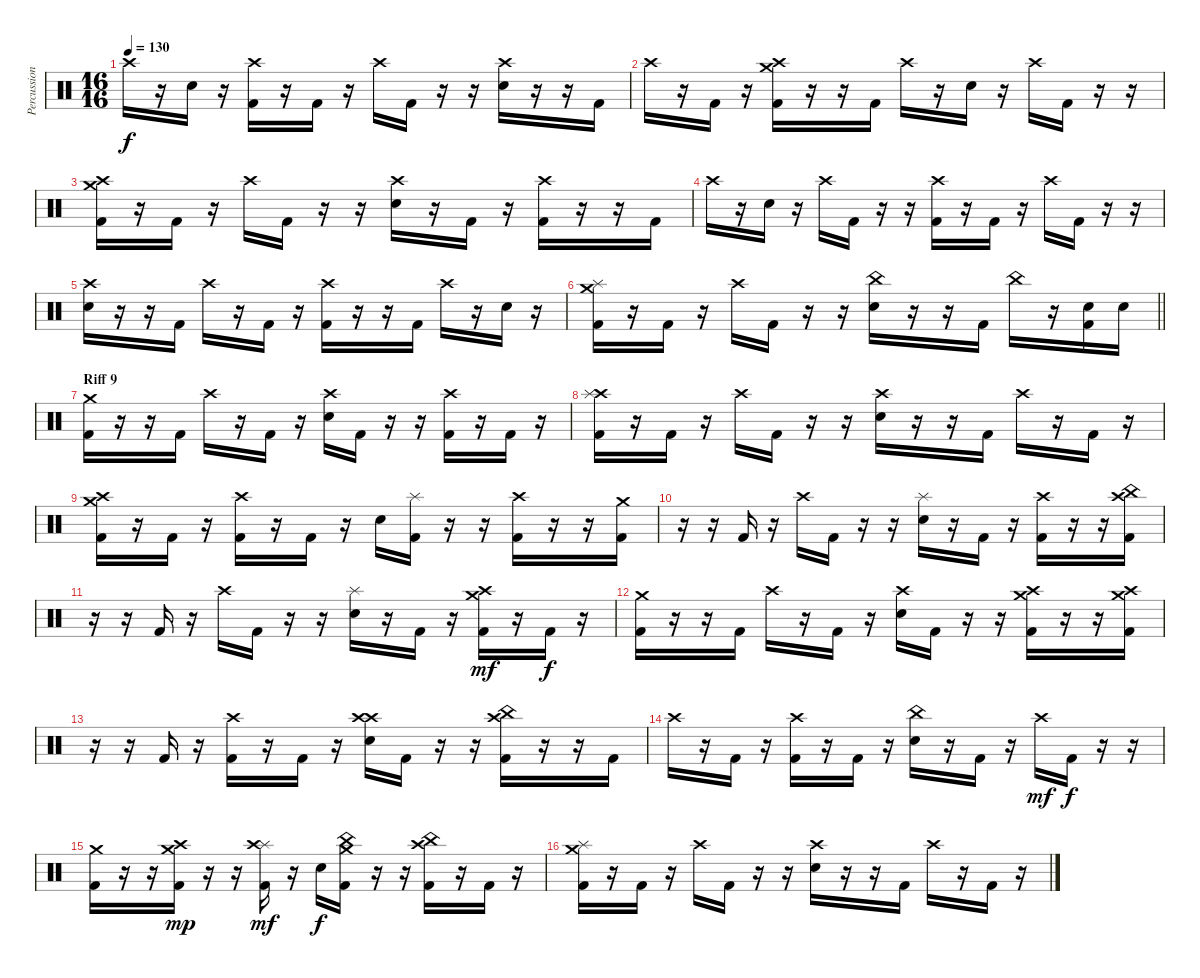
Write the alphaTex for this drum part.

\track ("Percussions" "Percussion") {instrument percussion}
\staff {score}
\articulation defaults
\ts (16 16)
\tempo 130
\clef neutral
\ks c "Crash high (hit)".16{dy f}
r.16 "Electric Snare (hit)".16 r.16 ("Crash high (hit)" "Kick (hit) 2").16 r.16 "Kick (hit) 2".16 r.16 "Crash high (hit)".16 "Kick (hit) 2".16 r.16 r.16 ("Crash high (hit)" "Electric Snare (hit)").16 r.16 r.16 "Kick (hit) 2".16 |
"Crash high (hit)".16 r.16 "Kick (hit) 2".16 r.16 ("Crash high (hit)" "Crash medium (hit)" "Kick (hit) 2").16 r.16 r.16 "Kick (hit) 2".16 "Crash high (hit)".16 r.16 "Electric Snare (hit)".16 r.16 "Crash high (hit)".16 "Kick (hit) 2".16 r.16 r.16 |
("Crash high (hit)" "Crash medium (hit)" "Kick (hit) 2").16 r.16 "Kick (hit) 2".16 r.16 "Crash high (hit)".16 "Kick (hit) 2".16 r.16 r.16 ("Crash high (hit)" "Electric Snare (hit)").16 r.16 "Kick (hit) 2".16 r.16 ("Crash high (hit)" "Kick (hit) 2").16 r.16 r.16 "Kick (hit) 2".16 |
"Crash high (hit)".16 r.16 "Electric Snare (hit)".16 r.16 "Crash high (hit)".16 "Kick (hit) 2".16 r.16 r.16 ("Crash high (hit)" "Kick (hit) 2").16 r.16 "Kick (hit) 2".16 r.16 "Crash high (hit)".16 "Kick (hit) 2".16 r.16 r.16 |
("Crash high (hit)" "Electric Snare (hit)").16 r.16 r.16 "Kick (hit) 2".16 "Crash high (hit)".16 r.16 "Kick (hit) 2".16 r.16 ("Crash high (hit)" "Kick (hit) 2").16 r.16 r.16 "Kick (hit) 2".16 "Crash high (hit)".16 r.16 "Electric Snare (hit)".16 r.16 |
\barLineRight lightlight
("Crash medium (hit)" "Splash (hit)" "Kick (hit) 2").16 r.16 "Kick (hit) 2".16 r.16 "Crash high (hit)".16 "Kick (hit) 2".16 r.16 r.16 ("China (hit)" "Electric Snare (hit)").16 r.16 r.16 "Kick (hit) 2".16 "China (hit)".16 r.16 ("Electric Snare (hit)" "Kick (hit) 2").16 "Electric Snare (hit)".16 |
\section ("" "Riff 9")
("Crash medium (hit)" "Kick (hit) 2").16 r.16 r.16 "Kick (hit) 2".16 "Crash high (hit)".16 r.16 "Kick (hit) 2".16 r.16 ("Crash high (hit)" "Electric Snare (hit)").16 "Kick (hit) 2".16 r.16 r.16 ("Crash high (hit)" "Kick (hit) 2").16 r.16 "Kick (hit) 2".16 r.16 |
("Crash high (hit)" "Splash (hit)" "Kick (hit) 2").16 r.16 "Kick (hit) 2".16 r.16 "Crash high (hit)".16 "Kick (hit) 2".16 r.16 r.16 ("Crash high (hit)" "Electric Snare (hit)").16 r.16 r.16 "Kick (hit) 2".16 "Crash high (hit)".16 r.16 "Kick (hit) 2".16 r.16 |
("Crash medium (hit)" "Crash high (hit)" "Kick (hit) 2").16 r.16 "Kick (hit) 2".16 r.16 ("Crash high (hit)" "Kick (hit) 2").16 r.16 "Kick (hit) 2".16 r.16 "Electric Snare (hit)".16 ("Splash (hit)" "Kick (hit) 2").16 r.16 r.16 ("Crash high (hit)" "Kick (hit) 2").16 r.16 r.16 ("Crash medium (hit)" "Kick (hit) 2").16 |
r.16 r.16 "Kick (hit) 2".16 r.16 "Crash high (hit)".16 "Kick (hit) 2".16 r.16 r.16 ("Splash (hit)" "Electric Snare (hit)").16 r.16 "Kick (hit) 2".16 r.16 ("Crash high (hit)" "Kick (hit) 2").16 r.16 r.16 ("China (hit)" "Crash high (hit)" "Kick (hit) 2").16 |
r.16 r.16 "Kick (hit) 2".16 r.16 "Crash high (hit)".16 "Kick (hit) 2".16 r.16 r.16 ("Splash (hit)" "Electric Snare (hit)").16 r.16 "Kick (hit) 2".16 r.16 ("Crash high (hit)" "Crash medium (hit)" "Kick (hit) 2").16{dy mf} r.16 "Kick (hit) 2".16{dy f} r.16 |
("Crash medium (hit)" "Kick (hit) 2").16 r.16 r.16 "Kick (hit) 2".16 "Crash high (hit)".16 r.16 "Kick (hit) 2".16 r.16 ("Crash high (hit)" "Electric Snare (hit)").16 "Kick (hit) 2".16 r.16 r.16 ("Crash medium (hit)" "Crash high (hit)" "Kick (hit) 2").16 r.16 r.16 ("Crash medium (hit)" "Crash high (hit)" "Kick (hit) 2").16 |
r.16 r.16 "Kick (hit) 2".16 r.16 ("Crash high (hit)" "Kick (hit) 2").16 r.16 "Kick (hit) 2".16 r.16 ("Crash high (hit)" "Crash high (hit)" "Electric Snare (hit)").16 "Kick (hit) 2".16 r.16 r.16 ("China (hit)" "Crash high (hit)" "Kick (hit) 2").16 r.16 r.16 "Kick (hit) 2".16 |
"Crash high (hit)".16 r.16 "Kick (hit) 2".16 r.16 ("Crash high (hit)" "Kick (hit) 2").16 r.16 "Kick (hit) 2".16 r.16 ("China (hit)" "Electric Snare (hit)").16 r.16 "Kick (hit) 2".16 r.16 "Crash high (hit)".16{dy mf} "Kick (hit) 2".16{dy f} r.16 r.16 |
("Crash medium (hit)" "Kick (hit) 2").16 r.16 r.16 ("Crash medium (hit)" "Crash high (hit)" "Kick (hit) 2").16{dy mp} r.16 r.16 ("Splash (hit)" "Crash high (hit)" "Kick (hit) 2").16{dy mf} r.16 "Electric Snare (hit)".16{dy f} ("Crash medium (hit)" "China (hit)" "Kick (hit) 2").16 r.16 r.16 ("Crash high (hit)" "China (hit)" "Kick (hit) 2").16 r.16 "Kick (hit) 2".16 r.16 |
("Crash medium (hit)" "Splash (hit)" "Kick (hit) 2").16 r.16 "Kick (hit) 2".16 r.16 "Crash high (hit)".16 "Kick (hit) 2".16 r.16 r.16 ("Crash high (hit)" "Electric Snare (hit)").16 r.16 r.16 "Kick (hit) 2".16 "Crash high (hit)".16 r.16 "Kick (hit) 2".16 r.16
